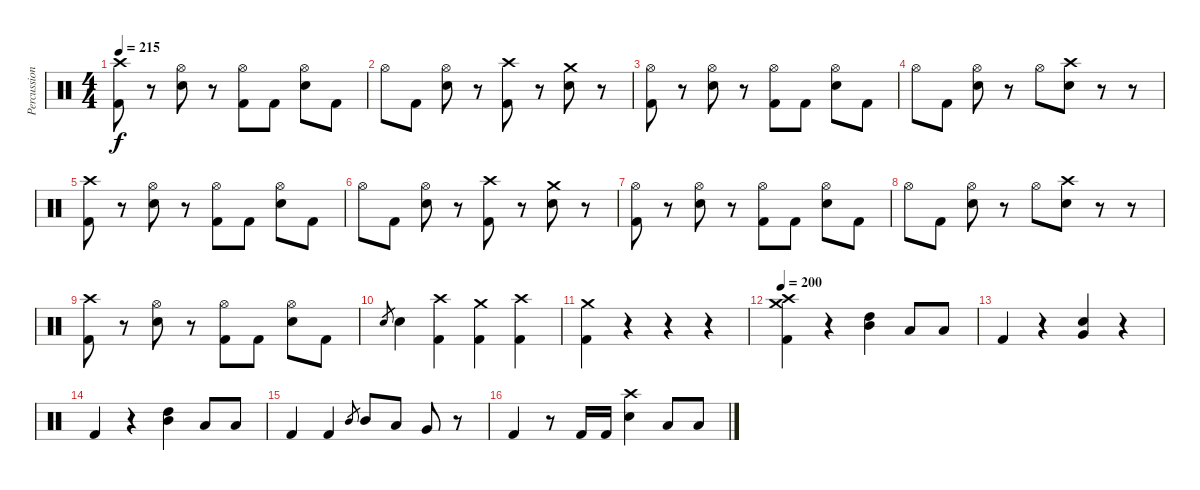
\track ("Percussion" "Percussion") {instrument percussion}
\staff {score}
\articulation defaults
\ts (4 4)
\tempo 215
\clef neutral
\ks c
("Crash high (hit)" "Kick (hit) 2").8{dy f} r.8 ("Hi-Hat (open)" "Snare (hit) 2").8 r.8 ("Hi-Hat (open)" "Kick (hit) 2").8 "Kick (hit) 2".8 ("Hi-Hat (open)" "Snare (hit) 2").8 "Kick (hit) 2".8 |
"Hi-Hat (open)".8 "Kick (hit) 2".8 ("Hi-Hat (open)" "Snare (hit) 2").8 r.8 ("Crash high (hit)" "Kick (hit) 2").8 r.8 ("Crash medium (hit)" "Snare (hit) 2").8 r.8 |
("Hi-Hat (open)" "Kick (hit) 2").8 r.8 ("Hi-Hat (open)" "Snare (hit) 2").8 r.8 ("Hi-Hat (open)" "Kick (hit) 2").8 "Kick (hit) 2".8 ("Hi-Hat (open)" "Snare (hit) 2").8 "Kick (hit) 2".8 |
"Hi-Hat (open)".8 "Kick (hit) 2".8 ("Hi-Hat (open)" "Snare (hit) 2").8 r.8 "Hi-Hat (open)".8 ("Crash high (hit)" "Snare (hit) 2").8 r.8 r.8 |
("Crash high (hit)" "Kick (hit) 2").8 r.8 ("Hi-Hat (open)" "Snare (hit) 2").8 r.8 ("Hi-Hat (open)" "Kick (hit) 2").8 "Kick (hit) 2".8 ("Hi-Hat (open)" "Snare (hit) 2").8 "Kick (hit) 2".8 |
"Hi-Hat (open)".8 "Kick (hit) 2".8 ("Hi-Hat (open)" "Snare (hit) 2").8 r.8 ("Crash high (hit)" "Kick (hit) 2").8 r.8 ("Crash medium (hit)" "Snare (hit) 2").8 r.8 |
("Hi-Hat (open)" "Kick (hit) 2").8 r.8 ("Hi-Hat (open)" "Snare (hit) 2").8 r.8 ("Hi-Hat (open)" "Kick (hit) 2").8 "Kick (hit) 2".8 ("Hi-Hat (open)" "Snare (hit) 2").8 "Kick (hit) 2".8 |
"Hi-Hat (open)".8 "Kick (hit) 2".8 ("Hi-Hat (open)" "Snare (hit) 2").8 r.8 "Hi-Hat (open)".8 ("Crash high (hit)" "Snare (hit) 2").8 r.8 r.8 |
("Crash high (hit)" "Kick (hit) 2").8 r.8 ("Hi-Hat (open)" "Snare (hit) 2").8 r.8 ("Hi-Hat (open)" "Kick (hit) 2").8 "Kick (hit) 2".8 ("Hi-Hat (open)" "Snare (hit) 2").8 "Kick (hit) 2".8 |
"Snare (hit) 2".8{gr} "Snare (hit) 2".4 ("Crash high (hit)" "Kick (hit) 2").4 ("Crash medium (hit)" "Kick (hit) 2").4 ("Crash high (hit)" "Kick (hit) 2").4 |
("Crash medium (hit)" "Kick (hit) 2").4 r.4 r.4 r.4 |
\tempo 200
("Crash high (hit)" "Crash medium (hit)" "Kick (hit) 2").4 r.4 ("High Tom (hit)" "Mid Tom (hit)").4 "Low Tom (hit)".8 "Low Tom (hit)".8 |
"Kick (hit) 2".4 r.4 ("Very Low Tom (hit)" "Snare (hit) 2").4 r.4 |
"Kick (hit) 2".4 r.4 ("High Tom (hit)" "Mid Tom (hit)").4 "Low Tom (hit)".8 "Low Tom (hit)".8 |
"Kick (hit) 2".4 "Kick (hit) 2".4 "Mid Tom (hit)".8{gr} "Mid Tom (hit)".8 "Low Tom (hit)".8 "Very Low Tom (hit)".8 r.8 |
"Kick (hit) 2".4 r.8 "Kick (hit) 2".16 "Kick (hit) 2".16 ("Crash high (hit)" "Snare (hit) 2").4 "Low Tom (hit)".8 "Low Tom (hit)".8
